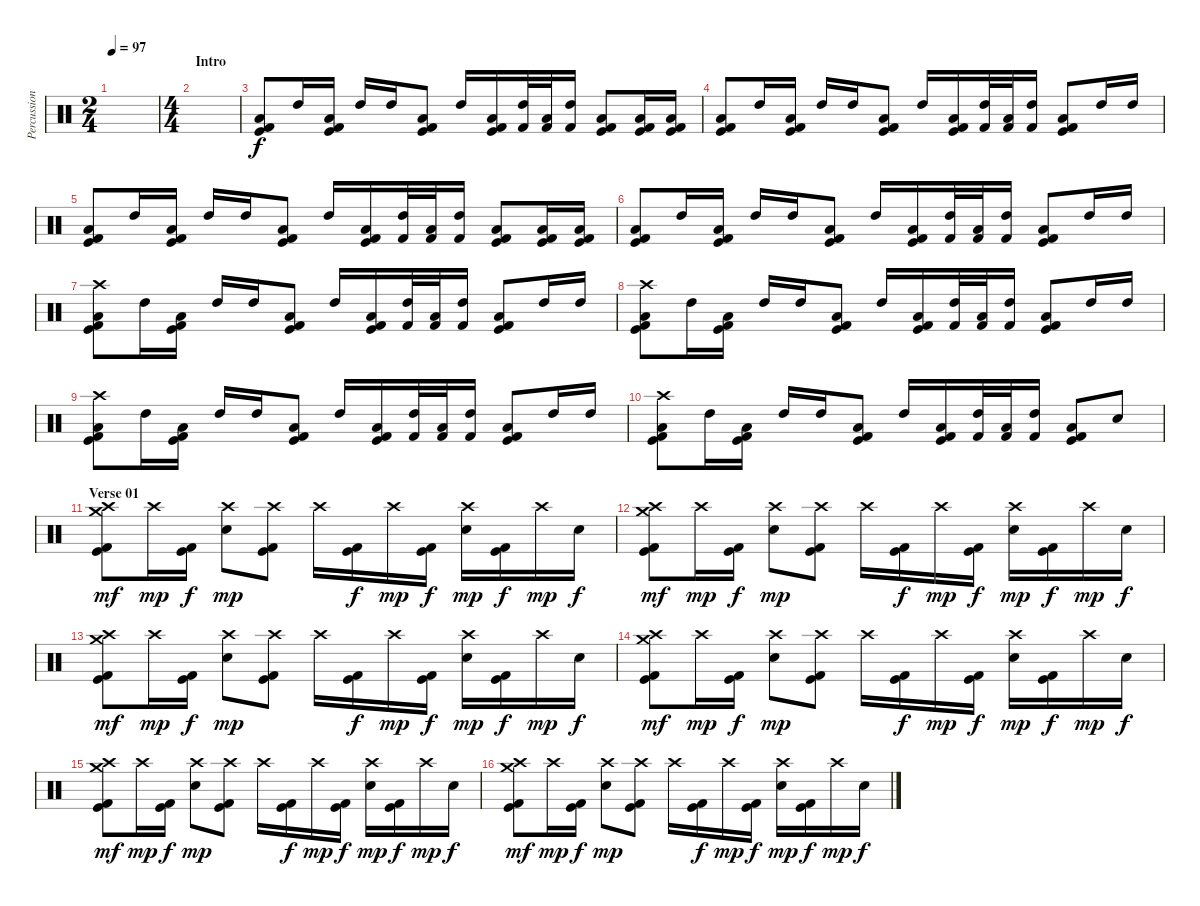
\track ("Percussion - Skinny" "Percussion") {instrument percussion}
\staff {score}
\articulation defaults
\ts (2 4)
\tempo 97
\clef neutral
\ks c
|
\ts (4 4)
\section ("" "Intro")
|
("Low Floor Tom (hit)" "Kick (hit) 2" "Kick (hit)").8 "High Tom (hit)".16 ("Low Floor Tom (hit)" "Kick (hit) 2" "Kick (hit)").16 "High Tom (hit)".16 "High Tom (hit)".16 ("Low Floor Tom (hit)" "Kick (hit) 2" "Kick (hit)").8 "High Tom (hit)".16 ("Low Floor Tom (hit)" "Kick (hit) 2" "Kick (hit)").16 ("High Tom (hit)" "Kick (hit) 2").32 ("Low Floor Tom (hit)" "Kick (hit) 2").32 ("High Tom (hit)" "Kick (hit) 2").16 ("Low Floor Tom (hit)" "Kick (hit) 2" "Kick (hit)").8 ("Low Floor Tom (hit)" "Kick (hit) 2" "Kick (hit)").16 ("Low Floor Tom (hit)" "Kick (hit) 2" "Kick (hit)").16 |
("Low Floor Tom (hit)" "Kick (hit) 2" "Kick (hit)").8 "High Tom (hit)".16 ("Low Floor Tom (hit)" "Kick (hit) 2" "Kick (hit)").16 "High Tom (hit)".16 "High Tom (hit)".16 ("Low Floor Tom (hit)" "Kick (hit) 2" "Kick (hit)").8 "High Tom (hit)".16 ("Low Floor Tom (hit)" "Kick (hit) 2" "Kick (hit)").16 ("High Tom (hit)" "Kick (hit) 2").32 ("Low Floor Tom (hit)" "Kick (hit) 2").32 ("High Tom (hit)" "Kick (hit) 2").16 ("Low Floor Tom (hit)" "Kick (hit) 2" "Kick (hit)").8 "High Tom (hit)".16 "High Tom (hit)".16 |
("Low Floor Tom (hit)" "Kick (hit) 2" "Kick (hit)").8 "High Tom (hit)".16 ("Low Floor Tom (hit)" "Kick (hit) 2" "Kick (hit)").16 "High Tom (hit)".16 "High Tom (hit)".16 ("Low Floor Tom (hit)" "Kick (hit) 2" "Kick (hit)").8 "High Tom (hit)".16 ("Low Floor Tom (hit)" "Kick (hit) 2" "Kick (hit)").16 ("High Tom (hit)" "Kick (hit) 2").32 ("Low Floor Tom (hit)" "Kick (hit) 2").32 ("High Tom (hit)" "Kick (hit) 2").16 ("Low Floor Tom (hit)" "Kick (hit) 2" "Kick (hit)").8 ("Low Floor Tom (hit)" "Kick (hit) 2" "Kick (hit)").16 ("Low Floor Tom (hit)" "Kick (hit) 2" "Kick (hit)").16 |
("Low Floor Tom (hit)" "Kick (hit) 2" "Kick (hit)").8 "High Tom (hit)".16 ("Low Floor Tom (hit)" "Kick (hit) 2" "Kick (hit)").16 "High Tom (hit)".16 "High Tom (hit)".16 ("Low Floor Tom (hit)" "Kick (hit) 2" "Kick (hit)").8 "High Tom (hit)".16 ("Low Floor Tom (hit)" "Kick (hit) 2" "Kick (hit)").16 ("High Tom (hit)" "Kick (hit) 2").32 ("Low Floor Tom (hit)" "Kick (hit) 2").32 ("High Tom (hit)" "Kick (hit) 2").16 ("Low Floor Tom (hit)" "Kick (hit) 2" "Kick (hit)").8 "High Tom (hit)".16 "High Tom (hit)".16 |
("Crash high (hit)" "Low Floor Tom (hit)" "Kick (hit) 2" "Kick (hit)").8 "High Tom (hit)".16 ("Low Floor Tom (hit)" "Kick (hit) 2" "Kick (hit)").16 "High Tom (hit)".16 "High Tom (hit)".16 ("Low Floor Tom (hit)" "Kick (hit) 2" "Kick (hit)").8 "High Tom (hit)".16 ("Low Floor Tom (hit)" "Kick (hit) 2" "Kick (hit)").16 ("High Tom (hit)" "Kick (hit) 2").32 ("Low Floor Tom (hit)" "Kick (hit) 2").32 ("High Tom (hit)" "Kick (hit) 2").16 ("Low Floor Tom (hit)" "Kick (hit) 2" "Kick (hit)").8 "High Tom (hit)".16 "High Tom (hit)".16 |
("Crash high (hit)" "Low Floor Tom (hit)" "Kick (hit) 2" "Kick (hit)").8 "High Tom (hit)".16 ("Low Floor Tom (hit)" "Kick (hit) 2" "Kick (hit)").16 "High Tom (hit)".16 "High Tom (hit)".16 ("Low Floor Tom (hit)" "Kick (hit) 2" "Kick (hit)").8 "High Tom (hit)".16 ("Low Floor Tom (hit)" "Kick (hit) 2" "Kick (hit)").16 ("High Tom (hit)" "Kick (hit) 2").32 ("Low Floor Tom (hit)" "Kick (hit) 2").32 ("High Tom (hit)" "Kick (hit) 2").16 ("Low Floor Tom (hit)" "Kick (hit) 2" "Kick (hit)").8 "High Tom (hit)".16 "High Tom (hit)".16 |
("Crash high (hit)" "Low Floor Tom (hit)" "Kick (hit) 2" "Kick (hit)").8 "High Tom (hit)".16 ("Low Floor Tom (hit)" "Kick (hit) 2" "Kick (hit)").16 "High Tom (hit)".16 "High Tom (hit)".16 ("Low Floor Tom (hit)" "Kick (hit) 2" "Kick (hit)").8 "High Tom (hit)".16 ("Low Floor Tom (hit)" "Kick (hit) 2" "Kick (hit)").16 ("High Tom (hit)" "Kick (hit) 2").32 ("Low Floor Tom (hit)" "Kick (hit) 2").32 ("High Tom (hit)" "Kick (hit) 2").16 ("Low Floor Tom (hit)" "Kick (hit) 2" "Kick (hit)").8 "High Tom (hit)".16 "High Tom (hit)".16 |
("Crash high (hit)" "Low Floor Tom (hit)" "Kick (hit) 2" "Kick (hit)").8 "High Tom (hit)".16 ("Low Floor Tom (hit)" "Kick (hit) 2" "Kick (hit)").16 "High Tom (hit)".16 "High Tom (hit)".16 ("Low Floor Tom (hit)" "Kick (hit) 2" "Kick (hit)").8 "High Tom (hit)".16 ("Low Floor Tom (hit)" "Kick (hit) 2" "Kick (hit)").16 ("High Tom (hit)" "Kick (hit) 2").32 ("Low Floor Tom (hit)" "Kick (hit) 2").32 ("High Tom (hit)" "Kick (hit) 2").16 ("Low Floor Tom (hit)" "Kick (hit) 2" "Kick (hit)").8 "Snare (hit) 2".8 |
\section ("" "Verse 01")
("Crash high (hit)" "Crash medium (hit)" "Kick (hit) 2" "Kick (hit)").8{dy mf} "Crash high (hit)".16{dy mp} ("Kick (hit) 2" "Kick (hit)").16{dy f} ("Crash high (hit)" "Electric Snare (hit)").8{dy mp} ("Crash high (hit)" "Kick (hit) 2" "Kick (hit)").8 "Crash high (hit)".16 ("Kick (hit) 2" "Kick (hit)").16{dy f} "Crash high (hit)".16{dy mp} ("Kick (hit) 2" "Kick (hit)").16{dy f} ("Crash high (hit)" "Electric Snare (hit)").16{dy mp} ("Kick (hit) 2" "Kick (hit)").16{dy f} "Crash high (hit)".16{dy mp} "Electric Snare (hit)".16{dy f} |
("Crash high (hit)" "Crash medium (hit)" "Kick (hit) 2" "Kick (hit)").8{dy mf} "Crash high (hit)".16{dy mp} ("Kick (hit) 2" "Kick (hit)").16{dy f} ("Crash high (hit)" "Electric Snare (hit)").8{dy mp} ("Crash high (hit)" "Kick (hit) 2" "Kick (hit)").8 "Crash high (hit)".16 ("Kick (hit) 2" "Kick (hit)").16{dy f} "Crash high (hit)".16{dy mp} ("Kick (hit) 2" "Kick (hit)").16{dy f} ("Crash high (hit)" "Electric Snare (hit)").16{dy mp} ("Kick (hit) 2" "Kick (hit)").16{dy f} "Crash high (hit)".16{dy mp} "Electric Snare (hit)".16{dy f} |
("Crash high (hit)" "Crash medium (hit)" "Kick (hit) 2" "Kick (hit)").8{dy mf} "Crash high (hit)".16{dy mp} ("Kick (hit) 2" "Kick (hit)").16{dy f} ("Crash high (hit)" "Electric Snare (hit)").8{dy mp} ("Crash high (hit)" "Kick (hit) 2" "Kick (hit)").8 "Crash high (hit)".16 ("Kick (hit) 2" "Kick (hit)").16{dy f} "Crash high (hit)".16{dy mp} ("Kick (hit) 2" "Kick (hit)").16{dy f} ("Crash high (hit)" "Electric Snare (hit)").16{dy mp} ("Kick (hit) 2" "Kick (hit)").16{dy f} "Crash high (hit)".16{dy mp} "Electric Snare (hit)".16{dy f} |
("Crash high (hit)" "Crash medium (hit)" "Kick (hit) 2" "Kick (hit)").8{dy mf} "Crash high (hit)".16{dy mp} ("Kick (hit) 2" "Kick (hit)").16{dy f} ("Crash high (hit)" "Electric Snare (hit)").8{dy mp} ("Crash high (hit)" "Kick (hit) 2" "Kick (hit)").8 "Crash high (hit)".16 ("Kick (hit) 2" "Kick (hit)").16{dy f} "Crash high (hit)".16{dy mp} ("Kick (hit) 2" "Kick (hit)").16{dy f} ("Crash high (hit)" "Electric Snare (hit)").16{dy mp} ("Kick (hit) 2" "Kick (hit)").16{dy f} "Crash high (hit)".16{dy mp} "Electric Snare (hit)".16{dy f} |
("Crash high (hit)" "Crash medium (hit)" "Kick (hit) 2" "Kick (hit)").8{dy mf} "Crash high (hit)".16{dy mp} ("Kick (hit) 2" "Kick (hit)").16{dy f} ("Crash high (hit)" "Electric Snare (hit)").8{dy mp} ("Crash high (hit)" "Kick (hit) 2" "Kick (hit)").8 "Crash high (hit)".16 ("Kick (hit) 2" "Kick (hit)").16{dy f} "Crash high (hit)".16{dy mp} ("Kick (hit) 2" "Kick (hit)").16{dy f} ("Crash high (hit)" "Electric Snare (hit)").16{dy mp} ("Kick (hit) 2" "Kick (hit)").16{dy f} "Crash high (hit)".16{dy mp} "Electric Snare (hit)".16{dy f} |
("Crash high (hit)" "Crash medium (hit)" "Kick (hit) 2" "Kick (hit)").8{dy mf} "Crash high (hit)".16{dy mp} ("Kick (hit) 2" "Kick (hit)").16{dy f} ("Crash high (hit)" "Electric Snare (hit)").8{dy mp} ("Crash high (hit)" "Kick (hit) 2" "Kick (hit)").8 "Crash high (hit)".16 ("Kick (hit) 2" "Kick (hit)").16{dy f} "Crash high (hit)".16{dy mp} ("Kick (hit) 2" "Kick (hit)").16{dy f} ("Crash high (hit)" "Electric Snare (hit)").16{dy mp} ("Kick (hit) 2" "Kick (hit)").16{dy f} "Crash high (hit)".16{dy mp} "Electric Snare (hit)".16{dy f}
